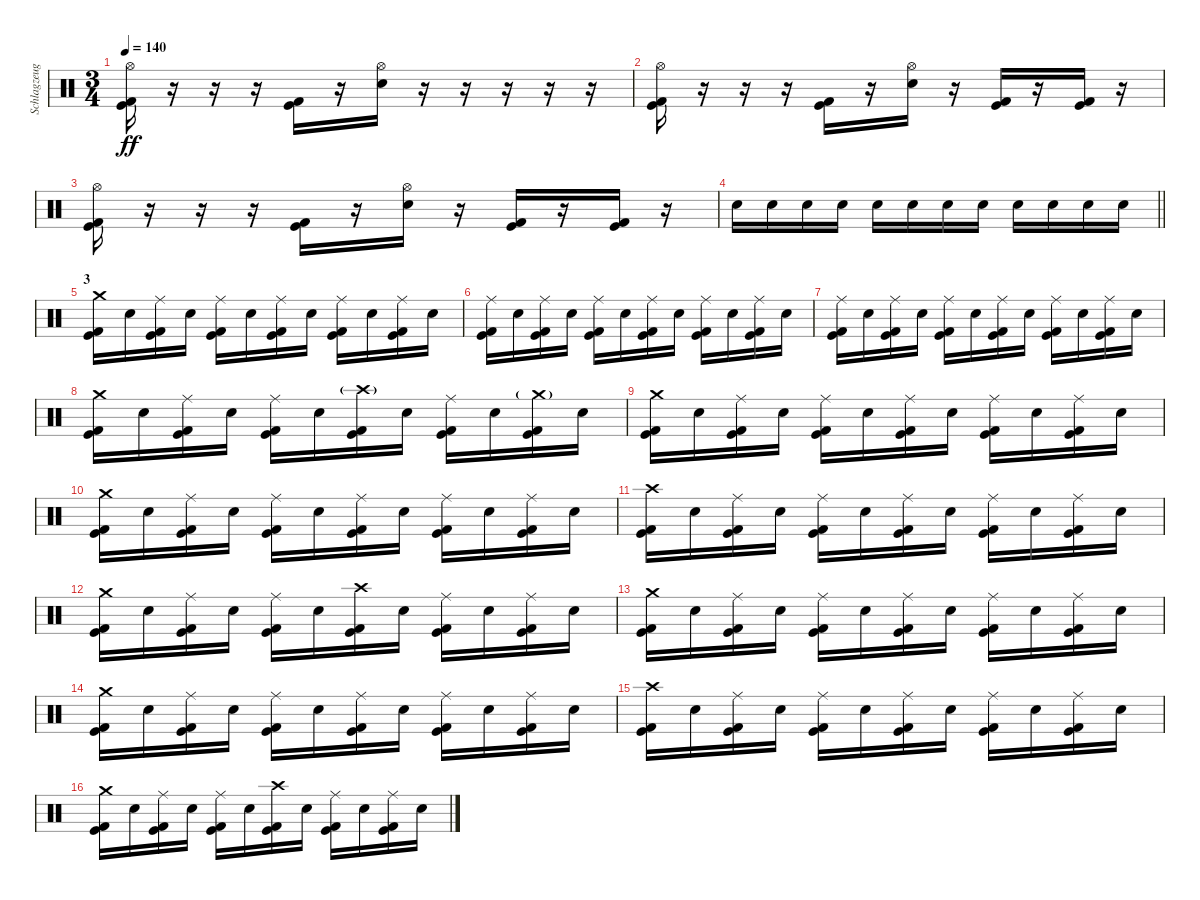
\track ("Schlagzeug" "Schlagzeug") {instrument percussion}
\staff {score}
\articulation defaults
\ts (3 4)
\tempo 140
\clef neutral
\ks c
("Hi-Hat (open)" "Kick (hit)" "Kick (hit) 2").16{dy ff} r.16 r.16 r.16 ("Kick (hit)" "Kick (hit) 2").16 r.16 ("Hi-Hat (open)" "Electric Snare (hit)").16 r.16 r.16 r.16 r.16 r.16 |
("Hi-Hat (open)" "Kick (hit)" "Kick (hit) 2").16 r.16 r.16 r.16 ("Kick (hit)" "Kick (hit) 2").16 r.16 ("Hi-Hat (open)" "Electric Snare (hit)").16 r.16 ("Kick (hit)" "Kick (hit) 2").16 r.16 ("Kick (hit)" "Kick (hit) 2").16 r.16 |
("Hi-Hat (open)" "Kick (hit)" "Kick (hit) 2").16 r.16 r.16 r.16 ("Kick (hit)" "Kick (hit) 2").16 r.16 ("Hi-Hat (open)" "Electric Snare (hit)").16 r.16 ("Kick (hit)" "Kick (hit) 2").16 r.16 ("Kick (hit)" "Kick (hit) 2").16 r.16 |
\barLineRight lightlight "Electric Snare (hit)".16 "Electric Snare (hit)".16 "Electric Snare (hit)".16 "Electric Snare (hit)".16 "Electric Snare (hit)".16 "Electric Snare (hit)".16 "Electric Snare (hit)".16 "Electric Snare (hit)".16 "Electric Snare (hit)".16 "Electric Snare (hit)".16 "Electric Snare (hit)".16 "Electric Snare (hit)".16
|
\section ("" "3")
("Crash medium (hit)" "Kick (hit)" "Kick (hit) 2").16 "Electric Snare (hit)".16 ("Ride (middle)" "Kick (hit)" "Kick (hit) 2").16 "Electric Snare (hit)".16 ("Ride (middle)" "Kick (hit)" "Kick (hit) 2").16 "Electric Snare (hit)".16 ("Ride (middle)" "Kick (hit)" "Kick (hit) 2").16 "Electric Snare (hit)".16 ("Ride (middle)" "Kick (hit)" "Kick (hit) 2").16 "Electric Snare (hit)".16 ("Ride (middle)" "Kick (hit)" "Kick (hit) 2").16 "Electric Snare (hit)".16 |
("Ride (middle)" "Kick (hit)" "Kick (hit) 2").16 "Electric Snare (hit)".16 ("Ride (middle)" "Kick (hit)" "Kick (hit) 2").16 "Electric Snare (hit)".16 ("Ride (middle)" "Kick (hit)" "Kick (hit) 2").16 "Electric Snare (hit)".16 ("Ride (middle)" "Kick (hit)" "Kick (hit) 2").16 "Electric Snare (hit)".16 ("Ride (middle)" "Kick (hit)" "Kick (hit) 2").16 "Electric Snare (hit)".16 ("Ride (middle)" "Kick (hit)" "Kick (hit) 2").16 "Electric Snare (hit)".16 |
("Ride (middle)" "Kick (hit)" "Kick (hit) 2").16 "Electric Snare (hit)".16 ("Ride (middle)" "Kick (hit)" "Kick (hit) 2").16 "Electric Snare (hit)".16 ("Ride (middle)" "Kick (hit)" "Kick (hit) 2").16 "Electric Snare (hit)".16 ("Ride (middle)" "Kick (hit)" "Kick (hit) 2").16 "Electric Snare (hit)".16 ("Ride (middle)" "Kick (hit)" "Kick (hit) 2").16 "Electric Snare (hit)".16 ("Ride (middle)" "Kick (hit)" "Kick (hit) 2").16 "Electric Snare (hit)".16 |
("Crash medium (hit)" "Kick (hit)" "Kick (hit) 2").16 "Electric Snare (hit)".16 ("Ride (middle)" "Kick (hit)" "Kick (hit) 2").16 "Electric Snare (hit)".16 ("Ride (middle)" "Kick (hit)" "Kick (hit) 2").16 "Electric Snare (hit)".16 ("Crash high (hit)"{g} "Kick (hit)" "Kick (hit) 2").16 "Electric Snare (hit)".16 ("Ride (middle)" "Kick (hit)" "Kick (hit) 2").16 "Electric Snare (hit)".16 ("Crash medium (hit)"{g} "Kick (hit)" "Kick (hit) 2").16 "Electric Snare (hit)".16 |
("Crash medium (hit)" "Kick (hit)" "Kick (hit) 2").16 "Electric Snare (hit)".16 ("Ride (middle)" "Kick (hit)" "Kick (hit) 2").16 "Electric Snare (hit)".16 ("Ride (middle)" "Kick (hit)" "Kick (hit) 2").16 "Electric Snare (hit)".16 ("Ride (middle)" "Kick (hit)" "Kick (hit) 2").16 "Electric Snare (hit)".16 ("Ride (middle)" "Kick (hit)" "Kick (hit) 2").16 "Electric Snare (hit)".16 ("Ride (middle)" "Kick (hit)" "Kick (hit) 2").16 "Electric Snare (hit)".16 |
("Crash medium (hit)" "Kick (hit)" "Kick (hit) 2").16 "Electric Snare (hit)".16 ("Ride (middle)" "Kick (hit)" "Kick (hit) 2").16 "Electric Snare (hit)".16 ("Ride (middle)" "Kick (hit)" "Kick (hit) 2").16 "Electric Snare (hit)".16 ("Ride (middle)" "Kick (hit)" "Kick (hit) 2").16 "Electric Snare (hit)".16 ("Ride (middle)" "Kick (hit)" "Kick (hit) 2").16 "Electric Snare (hit)".16 ("Ride (middle)" "Kick (hit)" "Kick (hit) 2").16 "Electric Snare (hit)".16 |
("Crash high (hit)" "Kick (hit)" "Kick (hit) 2").16 "Electric Snare (hit)".16 ("Ride (middle)" "Kick (hit)" "Kick (hit) 2").16 "Electric Snare (hit)".16 ("Ride (middle)" "Kick (hit)" "Kick (hit) 2").16 "Electric Snare (hit)".16 ("Ride (middle)" "Kick (hit)" "Kick (hit) 2").16 "Electric Snare (hit)".16 ("Ride (middle)" "Kick (hit)" "Kick (hit) 2").16 "Electric Snare (hit)".16 ("Ride (middle)" "Kick (hit)" "Kick (hit) 2").16 "Electric Snare (hit)".16 |
("Crash medium (hit)" "Kick (hit)" "Kick (hit) 2").16 "Electric Snare (hit)".16 ("Ride (middle)" "Kick (hit)" "Kick (hit) 2").16 "Electric Snare (hit)".16 ("Ride (middle)" "Kick (hit)" "Kick (hit) 2").16 "Electric Snare (hit)".16 ("Crash high (hit)" "Kick (hit)" "Kick (hit) 2").16 "Electric Snare (hit)".16 ("Ride (middle)" "Kick (hit)" "Kick (hit) 2").16 "Electric Snare (hit)".16 ("Ride (middle)" "Kick (hit)" "Kick (hit) 2").16 "Electric Snare (hit)".16 |
("Crash medium (hit)" "Kick (hit)" "Kick (hit) 2").16 "Electric Snare (hit)".16 ("Ride (middle)" "Kick (hit)" "Kick (hit) 2").16 "Electric Snare (hit)".16 ("Ride (middle)" "Kick (hit)" "Kick (hit) 2").16 "Electric Snare (hit)".16 ("Ride (middle)" "Kick (hit)" "Kick (hit) 2").16 "Electric Snare (hit)".16 ("Ride (middle)" "Kick (hit)" "Kick (hit) 2").16 "Electric Snare (hit)".16 ("Ride (middle)" "Kick (hit)" "Kick (hit) 2").16 "Electric Snare (hit)".16 |
("Crash medium (hit)" "Kick (hit)" "Kick (hit) 2").16 "Electric Snare (hit)".16 ("Ride (middle)" "Kick (hit)" "Kick (hit) 2").16 "Electric Snare (hit)".16 ("Ride (middle)" "Kick (hit)" "Kick (hit) 2").16 "Electric Snare (hit)".16 ("Ride (middle)" "Kick (hit)" "Kick (hit) 2").16 "Electric Snare (hit)".16 ("Ride (middle)" "Kick (hit)" "Kick (hit) 2").16 "Electric Snare (hit)".16 ("Ride (middle)" "Kick (hit)" "Kick (hit) 2").16 "Electric Snare (hit)".16 |
("Crash high (hit)" "Kick (hit)" "Kick (hit) 2").16 "Electric Snare (hit)".16 ("Ride (middle)" "Kick (hit)" "Kick (hit) 2").16 "Electric Snare (hit)".16 ("Ride (middle)" "Kick (hit)" "Kick (hit) 2").16 "Electric Snare (hit)".16 ("Ride (middle)" "Kick (hit)" "Kick (hit) 2").16 "Electric Snare (hit)".16 ("Ride (middle)" "Kick (hit)" "Kick (hit) 2").16 "Electric Snare (hit)".16 ("Ride (middle)" "Kick (hit)" "Kick (hit) 2").16 "Electric Snare (hit)".16 |
("Crash medium (hit)" "Kick (hit)" "Kick (hit) 2").16 "Electric Snare (hit)".16 ("Ride (middle)" "Kick (hit)" "Kick (hit) 2").16 "Electric Snare (hit)".16 ("Ride (middle)" "Kick (hit)" "Kick (hit) 2").16 "Electric Snare (hit)".16 ("Crash high (hit)" "Kick (hit)" "Kick (hit) 2").16 "Electric Snare (hit)".16 ("Ride (middle)" "Kick (hit)" "Kick (hit) 2").16 "Electric Snare (hit)".16 ("Ride (middle)" "Kick (hit)" "Kick (hit) 2").16 "Electric Snare (hit)".16
